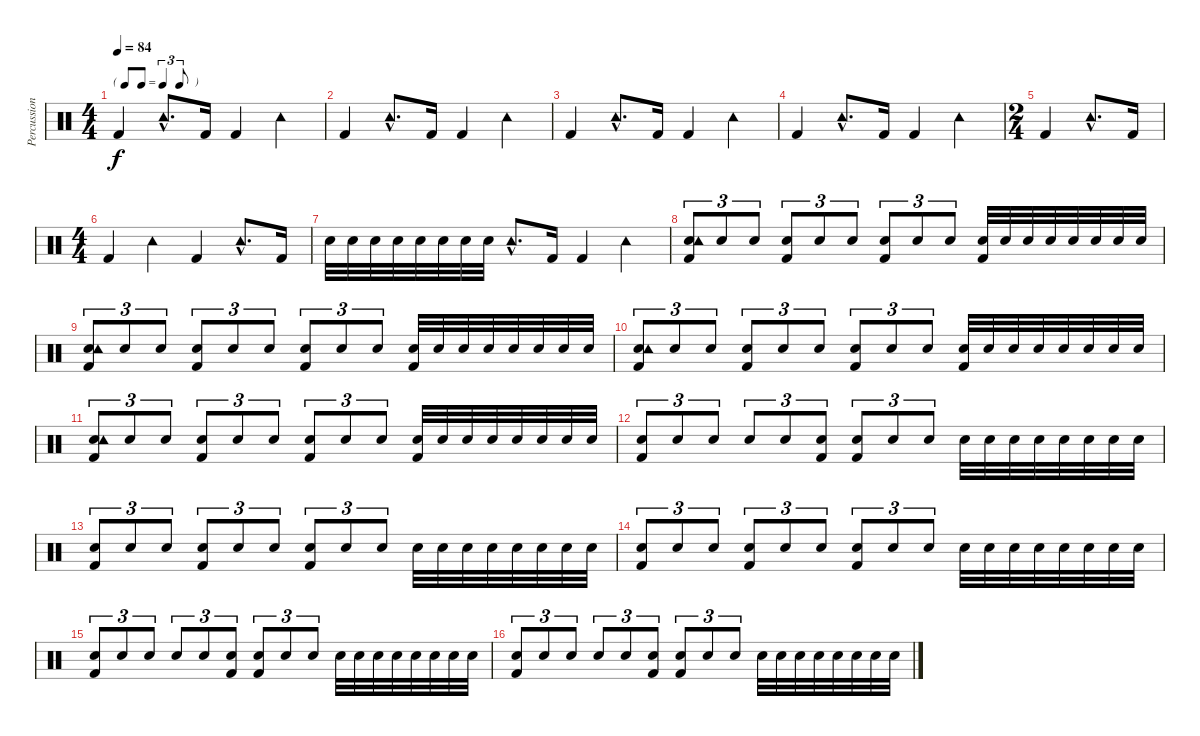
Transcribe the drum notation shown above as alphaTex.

\track ("Percussion" "Percussion") {instrument percussion}
\staff {score}
\articulation defaults
\ts (4 4)
\tf triplet8th
\tempo 84
\clef neutral
\ks c "Kick (hit) 2".4{dy f} "Tambourine (hit)"{hac}.8{d} "Kick (hit) 2".16 "Kick (hit) 2".4 "Tambourine (hit)".4
|
"Kick (hit) 2".4 "Tambourine (hit)"{hac}.8{d} "Kick (hit) 2".16 "Kick (hit) 2".4 "Tambourine (hit)".4 |
"Kick (hit) 2".4 "Tambourine (hit)"{hac}.8{d} "Kick (hit) 2".16 "Kick (hit) 2".4 "Tambourine (hit)".4 |
"Kick (hit) 2".4 "Tambourine (hit)"{hac}.8{d} "Kick (hit) 2".16 "Kick (hit) 2".4 "Tambourine (hit)".4 |
\ts (2 4)
"Kick (hit) 2".4 "Tambourine (hit)"{hac}.8{d} "Kick (hit) 2".16 |
\ts (4 4)
"Kick (hit) 2".4 "Tambourine (hit)".4 "Kick (hit) 2".4 "Tambourine (hit)"{hac}.8{d} "Kick (hit) 2".16 |
"Snare (hit) 2".32 "Snare (hit) 2".32 "Snare (hit) 2".32 "Snare (hit) 2".32 "Snare (hit) 2".32 "Snare (hit) 2".32 "Snare (hit) 2".32 "Snare (hit) 2".32 "Tambourine (hit)"{hac}.8{d} "Kick (hit) 2".16 "Kick (hit) 2".4 "Tambourine (hit)".4 |
("Snare (hit) 2" "Kick (hit) 2" "Tambourine (hit)").8{tu (3 2)} "Snare (hit) 2".8{tu (3 2)} "Snare (hit) 2".8{tu (3 2)} ("Snare (hit) 2" "Kick (hit) 2").8{tu (3 2)} "Snare (hit) 2".8{tu (3 2)} "Snare (hit) 2".8{tu (3 2)} ("Snare (hit) 2" "Kick (hit) 2").8{tu (3 2)} "Snare (hit) 2".8{tu (3 2)} "Snare (hit) 2".8{tu (3 2)} ("Snare (hit) 2" "Kick (hit) 2").32 "Snare (hit) 2".32 "Snare (hit) 2".32 "Snare (hit) 2".32 "Snare (hit) 2".32 "Snare (hit) 2".32 "Snare (hit) 2".32 "Snare (hit) 2".32 |
("Snare (hit) 2" "Kick (hit) 2" "Tambourine (hit)").8{tu (3 2)} "Snare (hit) 2".8{tu (3 2)} "Snare (hit) 2".8{tu (3 2)} ("Snare (hit) 2" "Kick (hit) 2").8{tu (3 2)} "Snare (hit) 2".8{tu (3 2)} "Snare (hit) 2".8{tu (3 2)} ("Snare (hit) 2" "Kick (hit) 2").8{tu (3 2)} "Snare (hit) 2".8{tu (3 2)} "Snare (hit) 2".8{tu (3 2)} ("Snare (hit) 2" "Kick (hit) 2").32 "Snare (hit) 2".32 "Snare (hit) 2".32 "Snare (hit) 2".32 "Snare (hit) 2".32 "Snare (hit) 2".32 "Snare (hit) 2".32 "Snare (hit) 2".32 |
("Snare (hit) 2" "Kick (hit) 2" "Tambourine (hit)").8{tu (3 2)} "Snare (hit) 2".8{tu (3 2)} "Snare (hit) 2".8{tu (3 2)} ("Snare (hit) 2" "Kick (hit) 2").8{tu (3 2)} "Snare (hit) 2".8{tu (3 2)} "Snare (hit) 2".8{tu (3 2)} ("Snare (hit) 2" "Kick (hit) 2").8{tu (3 2)} "Snare (hit) 2".8{tu (3 2)} "Snare (hit) 2".8{tu (3 2)} ("Snare (hit) 2" "Kick (hit) 2").32 "Snare (hit) 2".32 "Snare (hit) 2".32 "Snare (hit) 2".32 "Snare (hit) 2".32 "Snare (hit) 2".32 "Snare (hit) 2".32 "Snare (hit) 2".32 |
("Snare (hit) 2" "Kick (hit) 2" "Tambourine (hit)").8{tu (3 2)} "Snare (hit) 2".8{tu (3 2)} "Snare (hit) 2".8{tu (3 2)} ("Snare (hit) 2" "Kick (hit) 2").8{tu (3 2)} "Snare (hit) 2".8{tu (3 2)} "Snare (hit) 2".8{tu (3 2)} ("Snare (hit) 2" "Kick (hit) 2").8{tu (3 2)} "Snare (hit) 2".8{tu (3 2)} "Snare (hit) 2".8{tu (3 2)} ("Snare (hit) 2" "Kick (hit) 2").32 "Snare (hit) 2".32 "Snare (hit) 2".32 "Snare (hit) 2".32 "Snare (hit) 2".32 "Snare (hit) 2".32 "Snare (hit) 2".32 "Snare (hit) 2".32 |
("Snare (hit) 2" "Kick (hit) 2").8{tu (3 2)} "Snare (hit) 2".8{tu (3 2)} "Snare (hit) 2".8{tu (3 2)} "Snare (hit) 2".8{tu (3 2)} "Snare (hit) 2".8{tu (3 2)} ("Snare (hit) 2" "Kick (hit) 2").8{tu (3 2)} ("Snare (hit) 2" "Kick (hit) 2").8{tu (3 2)} "Snare (hit) 2".8{tu (3 2)} "Snare (hit) 2".8{tu (3 2)} "Snare (hit) 2".32 "Snare (hit) 2".32 "Snare (hit) 2".32 "Snare (hit) 2".32 "Snare (hit) 2".32 "Snare (hit) 2".32 "Snare (hit) 2".32 "Snare (hit) 2".32 |
("Snare (hit) 2" "Kick (hit) 2").8{tu (3 2)} "Snare (hit) 2".8{tu (3 2)} "Snare (hit) 2".8{tu (3 2)} ("Snare (hit) 2" "Kick (hit) 2").8{tu (3 2)} "Snare (hit) 2".8{tu (3 2)} "Snare (hit) 2".8{tu (3 2)} ("Snare (hit) 2" "Kick (hit) 2").8{tu (3 2)} "Snare (hit) 2".8{tu (3 2)} "Snare (hit) 2".8{tu (3 2)} "Snare (hit) 2".32 "Snare (hit) 2".32 "Snare (hit) 2".32 "Snare (hit) 2".32 "Snare (hit) 2".32 "Snare (hit) 2".32 "Snare (hit) 2".32 "Snare (hit) 2".32 |
("Snare (hit) 2" "Kick (hit) 2").8{tu (3 2)} "Snare (hit) 2".8{tu (3 2)} "Snare (hit) 2".8{tu (3 2)} ("Snare (hit) 2" "Kick (hit) 2").8{tu (3 2)} "Snare (hit) 2".8{tu (3 2)} "Snare (hit) 2".8{tu (3 2)} ("Snare (hit) 2" "Kick (hit) 2").8{tu (3 2)} "Snare (hit) 2".8{tu (3 2)} "Snare (hit) 2".8{tu (3 2)} "Snare (hit) 2".32 "Snare (hit) 2".32 "Snare (hit) 2".32 "Snare (hit) 2".32 "Snare (hit) 2".32 "Snare (hit) 2".32 "Snare (hit) 2".32 "Snare (hit) 2".32 |
("Snare (hit) 2" "Kick (hit) 2").8{tu (3 2)} "Snare (hit) 2".8{tu (3 2)} "Snare (hit) 2".8{tu (3 2)} "Snare (hit) 2".8{tu (3 2)} "Snare (hit) 2".8{tu (3 2)} ("Snare (hit) 2" "Kick (hit) 2").8{tu (3 2)} ("Snare (hit) 2" "Kick (hit) 2").8{tu (3 2)} "Snare (hit) 2".8{tu (3 2)} "Snare (hit) 2".8{tu (3 2)} "Snare (hit) 2".32 "Snare (hit) 2".32 "Snare (hit) 2".32 "Snare (hit) 2".32 "Snare (hit) 2".32 "Snare (hit) 2".32 "Snare (hit) 2".32 "Snare (hit) 2".32 |
("Snare (hit) 2" "Kick (hit) 2").8{tu (3 2)} "Snare (hit) 2".8{tu (3 2)} "Snare (hit) 2".8{tu (3 2)} "Snare (hit) 2".8{tu (3 2)} "Snare (hit) 2".8{tu (3 2)} ("Snare (hit) 2" "Kick (hit) 2").8{tu (3 2)} ("Snare (hit) 2" "Kick (hit) 2").8{tu (3 2)} "Snare (hit) 2".8{tu (3 2)} "Snare (hit) 2".8{tu (3 2)} "Snare (hit) 2".32 "Snare (hit) 2".32 "Snare (hit) 2".32 "Snare (hit) 2".32 "Snare (hit) 2".32 "Snare (hit) 2".32 "Snare (hit) 2".32 "Snare (hit) 2".32
